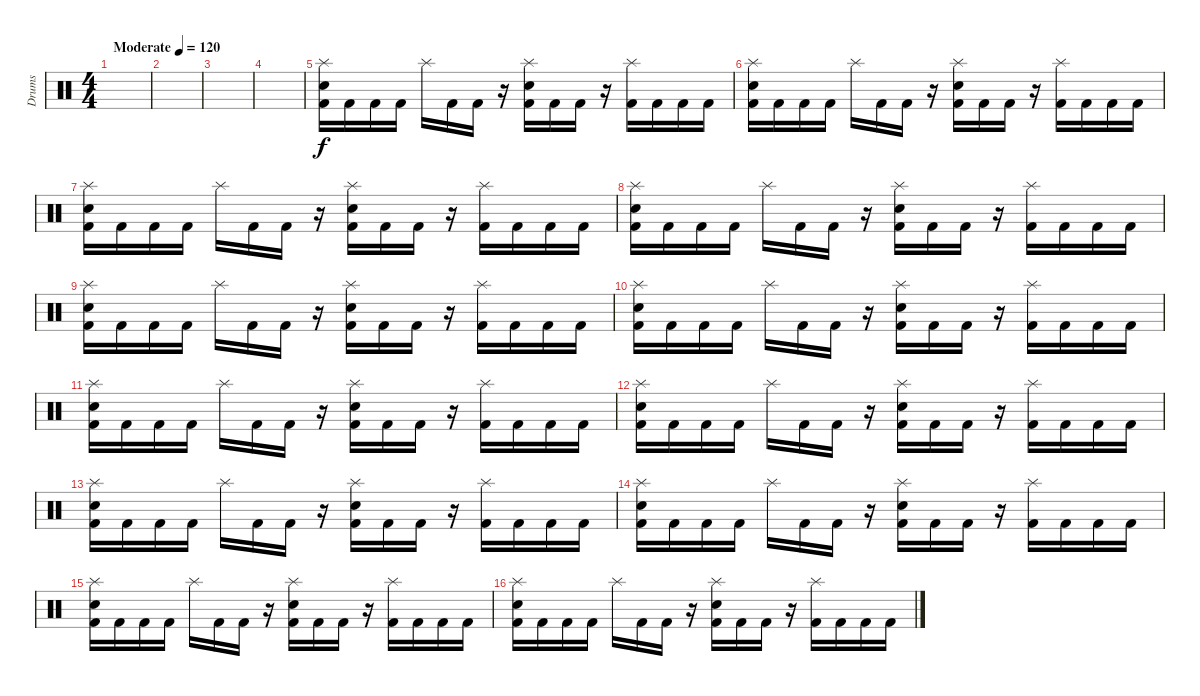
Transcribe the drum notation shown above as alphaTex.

\track ("Drums" "Drums") {instrument percussion}
\staff {score}
\articulation defaults
\ts (4 4)
\tempo (120 "Moderate")
\clef neutral
\ks c
|
|
|
|
("Splash (hit)" "Electric Snare (hit)" "Kick (hit) 2").16 "Kick (hit) 2".16 "Kick (hit) 2".16 "Kick (hit) 2".16 "Splash (hit)".16 "Kick (hit) 2".16 "Kick (hit) 2".16 r.16 ("Splash (hit)" "Electric Snare (hit)" "Kick (hit) 2").16 "Kick (hit) 2".16 "Kick (hit) 2".16 r.16 ("Splash (hit)" "Kick (hit) 2").16 "Kick (hit) 2".16 "Kick (hit) 2".16 "Kick (hit) 2".16 |
("Splash (hit)" "Electric Snare (hit)" "Kick (hit) 2").16 "Kick (hit) 2".16 "Kick (hit) 2".16 "Kick (hit) 2".16 "Splash (hit)".16 "Kick (hit) 2".16 "Kick (hit) 2".16 r.16 ("Splash (hit)" "Electric Snare (hit)" "Kick (hit) 2").16 "Kick (hit) 2".16 "Kick (hit) 2".16 r.16 ("Splash (hit)" "Kick (hit) 2").16 "Kick (hit) 2".16 "Kick (hit) 2".16 "Kick (hit) 2".16 |
("Splash (hit)" "Electric Snare (hit)" "Kick (hit) 2").16 "Kick (hit) 2".16 "Kick (hit) 2".16 "Kick (hit) 2".16 "Splash (hit)".16 "Kick (hit) 2".16 "Kick (hit) 2".16 r.16 ("Splash (hit)" "Electric Snare (hit)" "Kick (hit) 2").16 "Kick (hit) 2".16 "Kick (hit) 2".16 r.16 ("Splash (hit)" "Kick (hit) 2").16 "Kick (hit) 2".16 "Kick (hit) 2".16 "Kick (hit) 2".16 |
("Splash (hit)" "Electric Snare (hit)" "Kick (hit) 2").16 "Kick (hit) 2".16 "Kick (hit) 2".16 "Kick (hit) 2".16 "Splash (hit)".16 "Kick (hit) 2".16 "Kick (hit) 2".16 r.16 ("Splash (hit)" "Electric Snare (hit)" "Kick (hit) 2").16 "Kick (hit) 2".16 "Kick (hit) 2".16 r.16 ("Splash (hit)" "Kick (hit) 2").16 "Kick (hit) 2".16 "Kick (hit) 2".16 "Kick (hit) 2".16 |
("Splash (hit)" "Electric Snare (hit)" "Kick (hit) 2").16 "Kick (hit) 2".16 "Kick (hit) 2".16 "Kick (hit) 2".16 "Splash (hit)".16 "Kick (hit) 2".16 "Kick (hit) 2".16 r.16 ("Splash (hit)" "Electric Snare (hit)" "Kick (hit) 2").16 "Kick (hit) 2".16 "Kick (hit) 2".16 r.16 ("Splash (hit)" "Kick (hit) 2").16 "Kick (hit) 2".16 "Kick (hit) 2".16 "Kick (hit) 2".16 |
("Splash (hit)" "Electric Snare (hit)" "Kick (hit) 2").16 "Kick (hit) 2".16 "Kick (hit) 2".16 "Kick (hit) 2".16 "Splash (hit)".16 "Kick (hit) 2".16 "Kick (hit) 2".16 r.16 ("Splash (hit)" "Electric Snare (hit)" "Kick (hit) 2").16 "Kick (hit) 2".16 "Kick (hit) 2".16 r.16 ("Splash (hit)" "Kick (hit) 2").16 "Kick (hit) 2".16 "Kick (hit) 2".16 "Kick (hit) 2".16 |
("Splash (hit)" "Electric Snare (hit)" "Kick (hit) 2").16 "Kick (hit) 2".16 "Kick (hit) 2".16 "Kick (hit) 2".16 "Splash (hit)".16 "Kick (hit) 2".16 "Kick (hit) 2".16 r.16 ("Splash (hit)" "Electric Snare (hit)" "Kick (hit) 2").16 "Kick (hit) 2".16 "Kick (hit) 2".16 r.16 ("Splash (hit)" "Kick (hit) 2").16 "Kick (hit) 2".16 "Kick (hit) 2".16 "Kick (hit) 2".16 |
("Splash (hit)" "Electric Snare (hit)" "Kick (hit) 2").16 "Kick (hit) 2".16 "Kick (hit) 2".16 "Kick (hit) 2".16 "Splash (hit)".16 "Kick (hit) 2".16 "Kick (hit) 2".16 r.16 ("Splash (hit)" "Electric Snare (hit)" "Kick (hit) 2").16 "Kick (hit) 2".16 "Kick (hit) 2".16 r.16 ("Splash (hit)" "Kick (hit) 2").16 "Kick (hit) 2".16 "Kick (hit) 2".16 "Kick (hit) 2".16 |
("Splash (hit)" "Electric Snare (hit)" "Kick (hit) 2").16 "Kick (hit) 2".16 "Kick (hit) 2".16 "Kick (hit) 2".16 "Splash (hit)".16 "Kick (hit) 2".16 "Kick (hit) 2".16 r.16 ("Splash (hit)" "Electric Snare (hit)" "Kick (hit) 2").16 "Kick (hit) 2".16 "Kick (hit) 2".16 r.16 ("Splash (hit)" "Kick (hit) 2").16 "Kick (hit) 2".16 "Kick (hit) 2".16 "Kick (hit) 2".16 |
("Splash (hit)" "Electric Snare (hit)" "Kick (hit) 2").16 "Kick (hit) 2".16 "Kick (hit) 2".16 "Kick (hit) 2".16 "Splash (hit)".16 "Kick (hit) 2".16 "Kick (hit) 2".16 r.16 ("Splash (hit)" "Electric Snare (hit)" "Kick (hit) 2").16 "Kick (hit) 2".16 "Kick (hit) 2".16 r.16 ("Splash (hit)" "Kick (hit) 2").16 "Kick (hit) 2".16 "Kick (hit) 2".16 "Kick (hit) 2".16 |
("Splash (hit)" "Electric Snare (hit)" "Kick (hit) 2").16 "Kick (hit) 2".16 "Kick (hit) 2".16 "Kick (hit) 2".16 "Splash (hit)".16 "Kick (hit) 2".16 "Kick (hit) 2".16 r.16 ("Splash (hit)" "Electric Snare (hit)" "Kick (hit) 2").16 "Kick (hit) 2".16 "Kick (hit) 2".16 r.16 ("Splash (hit)" "Kick (hit) 2").16 "Kick (hit) 2".16 "Kick (hit) 2".16 "Kick (hit) 2".16 |
("Splash (hit)" "Electric Snare (hit)" "Kick (hit) 2").16 "Kick (hit) 2".16 "Kick (hit) 2".16 "Kick (hit) 2".16 "Splash (hit)".16 "Kick (hit) 2".16 "Kick (hit) 2".16 r.16 ("Splash (hit)" "Electric Snare (hit)" "Kick (hit) 2").16 "Kick (hit) 2".16 "Kick (hit) 2".16 r.16 ("Splash (hit)" "Kick (hit) 2").16 "Kick (hit) 2".16 "Kick (hit) 2".16 "Kick (hit) 2".16
